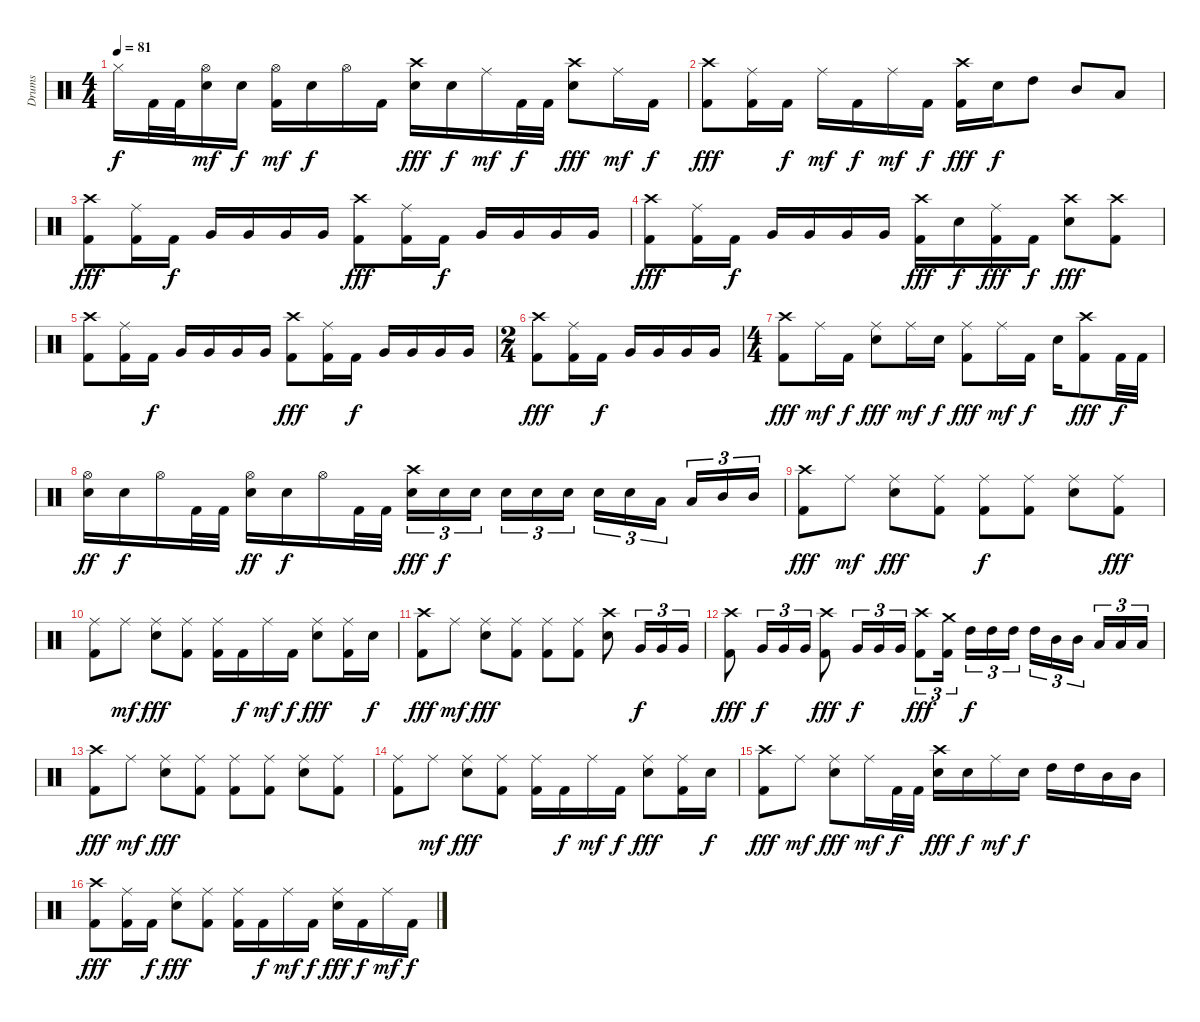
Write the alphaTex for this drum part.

\track ("Drums" "Drums") {instrument percussion}
\staff {score}
\articulation defaults
\ts (4 4)
\tempo 81
\clef neutral
\ks c "Hi-Hat (closed)".16{dy f} "Kick (hit) 2".32 "Kick (hit) 2".32
("Hi-Hat (open)" "Electric Snare (hit)").16{dy mf} "Electric Snare (hit)".16{dy f} ("Hi-Hat (open)" "Kick (hit) 2").16{dy mf} "Electric Snare (hit)".16{dy f} "Hi-Hat (open)".16 "Kick (hit) 2".16 ("Crash high (hit)" "Electric Snare (hit)").16{dy fff} "Electric Snare (hit)".16{dy f} "Ride (middle)".16{dy mf} "Kick (hit) 2".32{dy f} "Kick (hit) 2".32 ("Crash high (hit)" "Electric Snare (hit)").8{dy fff} "Ride (middle)".16{dy mf} "Kick (hit) 2".16{dy f} |
("Crash high (hit)" "Kick (hit) 2").8{dy fff} ("Ride (middle)" "Kick (hit) 2").16 "Kick (hit) 2".16{dy f} "Ride (middle)".16{dy mf} "Kick (hit) 2".16{dy f} "Ride (middle)".16{dy mf} "Kick (hit) 2".16{dy f} ("Crash high (hit)" "Kick (hit) 2").16{dy fff} "Electric Snare (hit)".16{dy f} "High Tom (hit)".8 "Mid Tom (hit)".8 "Low Tom (hit)".8 |
("Crash high (hit)" "Kick (hit) 2").8{dy fff} ("Ride (middle)" "Kick (hit) 2").16 "Kick (hit) 2".16{dy f} "Very Low Tom (hit)".16 "Very Low Tom (hit)".16 "Very Low Tom (hit)".16 "Very Low Tom (hit)".16 ("Crash high (hit)" "Kick (hit) 2").8{dy fff} ("Ride (middle)" "Kick (hit) 2").16 "Kick (hit) 2".16{dy f} "Very Low Tom (hit)".16 "Very Low Tom (hit)".16 "Very Low Tom (hit)".16 "Very Low Tom (hit)".16 |
("Crash high (hit)" "Kick (hit) 2").8{dy fff} ("Ride (middle)" "Kick (hit) 2").16 "Kick (hit) 2".16{dy f} "Very Low Tom (hit)".16 "Very Low Tom (hit)".16 "Very Low Tom (hit)".16 "Very Low Tom (hit)".16 ("Crash high (hit)" "Kick (hit) 2").16{dy fff} "Electric Snare (hit)".16{dy f} ("Ride (middle)" "Kick (hit) 2").16{dy fff} "Kick (hit) 2".16{dy f} ("Crash high (hit)" "Electric Snare (hit)").8{dy fff} ("Crash high (hit)" "Kick (hit) 2").8 |
("Crash high (hit)" "Kick (hit) 2").8 ("Ride (middle)" "Kick (hit) 2").16 "Kick (hit) 2".16{dy f} "Very Low Tom (hit)".16 "Very Low Tom (hit)".16 "Very Low Tom (hit)".16 "Very Low Tom (hit)".16 ("Crash high (hit)" "Kick (hit) 2").8{dy fff} ("Ride (middle)" "Kick (hit) 2").16 "Kick (hit) 2".16{dy f} "Very Low Tom (hit)".16 "Very Low Tom (hit)".16 "Very Low Tom (hit)".16 "Very Low Tom (hit)".16 |
\ts (2 4)
("Crash high (hit)" "Kick (hit) 2").8{dy fff} ("Ride (middle)" "Kick (hit) 2").16 "Kick (hit) 2".16{dy f} "Very Low Tom (hit)".16 "Very Low Tom (hit)".16 "Very Low Tom (hit)".16 "Very Low Tom (hit)".16 |
\ts (4 4)
("Crash high (hit)" "Kick (hit) 2").8{dy fff} "Ride (middle)".16{dy mf} "Kick (hit) 2".16{dy f} ("Ride (middle)" "Electric Snare (hit)").8{dy fff} "Ride (middle)".16{dy mf} "Electric Snare (hit)".16{dy f} ("Ride (middle)" "Kick (hit) 2").8{dy fff} "Ride (middle)".16{dy mf} "Kick (hit) 2".16{dy f} "Electric Snare (hit)".16 ("Crash high (hit)" "Kick (hit) 2").8{dy fff} "Kick (hit) 2".32{dy f} "Kick (hit) 2".32 |
("Hi-Hat (open)" "Electric Snare (hit)").16{dy ff} "Electric Snare (hit)".16{dy f} "Hi-Hat (open)".16 "Kick (hit) 2".32 "Kick (hit) 2".32 ("Hi-Hat (open)" "Electric Snare (hit)").16{dy ff} "Electric Snare (hit)".16{dy f} "Hi-Hat (open)".16 "Kick (hit) 2".32 "Kick (hit) 2".32 ("Crash high (hit)" "Electric Snare (hit)").16{tu (3 2) dy fff} "Electric Snare (hit)".16{tu (3 2) dy f} "Electric Snare (hit)".16{tu (3 2)} "Electric Snare (hit)".16{tu (3 2)} "Electric Snare (hit)".16{tu (3 2)} "Electric Snare (hit)".16{tu (3 2)} "Electric Snare (hit)".16{tu (3 2)} "Electric Snare (hit)".16{tu (3 2)} "Low Tom (hit)".16{tu (3 2)} "Low Tom (hit)".16{tu (3 2)} "Mid Tom (hit)".16{tu (3 2)} "Mid Tom (hit)".16{tu (3 2)} |
("Crash high (hit)" "Kick (hit) 2").8{dy fff} "Ride (middle)".8{dy mf} ("Ride (middle)" "Electric Snare (hit)").8{dy fff} ("Ride (middle)" "Kick (hit) 2").8 ("Ride (middle)" "Kick (hit) 2").8{dy f} ("Ride (middle)" "Kick (hit) 2").8 ("Ride (middle)" "Electric Snare (hit)").8 ("Ride (middle)" "Kick (hit) 2").8{dy fff} |
("Ride (middle)" "Kick (hit) 2").8 "Ride (middle)".8{dy mf} ("Ride (middle)" "Electric Snare (hit)").8{dy fff} ("Ride (middle)" "Kick (hit) 2").8 ("Ride (middle)" "Kick (hit) 2").16 "Kick (hit) 2".16{dy f} "Ride (middle)".16{dy mf} "Kick (hit) 2".16{dy f} ("Ride (middle)" "Electric Snare (hit)").8{dy fff} ("Ride (middle)" "Kick (hit) 2").16 "Electric Snare (hit)".16{dy f} |
("Crash high (hit)" "Kick (hit) 2").8{dy fff} "Ride (middle)".8{dy mf} ("Ride (middle)" "Electric Snare (hit)").8{dy fff} ("Ride (middle)" "Kick (hit) 2").8 ("Ride (middle)" "Kick (hit) 2").8 ("Ride (middle)" "Kick (hit) 2").8 ("Crash high (hit)" "Electric Snare (hit)").8 "Very Low Tom (hit)".16{tu (3 2) dy f} "Very Low Tom (hit)".16{tu (3 2)} "Very Low Tom (hit)".16{tu (3 2)} |
("Crash high (hit)" "Kick (hit) 2").8{dy fff} "Very Low Tom (hit)".16{tu (3 2) dy f} "Very Low Tom (hit)".16{tu (3 2)} "Very Low Tom (hit)".16{tu (3 2)} ("Crash high (hit)" "Kick (hit) 2").8{dy fff} "Very Low Tom (hit)".16{tu (3 2) dy f} "Very Low Tom (hit)".16{tu (3 2)} "Very Low Tom (hit)".16{tu (3 2)} ("Crash high (hit)" "Kick (hit) 2").8{tu (3 2) dy fff} ("Crash medium (hit)" "Kick (hit) 2").16{tu (3 2)} "High Tom (hit)".16{tu (3 2) dy f} "High Tom (hit)".16{tu (3 2)} "High Tom (hit)".16{tu (3 2)} "High Tom (hit)".16{tu (3 2)} "Mid Tom (hit)".16{tu (3 2)} "Mid Tom (hit)".16{tu (3 2)} "Low Tom (hit)".16{tu (3 2)} "Low Tom (hit)".16{tu (3 2)} "Low Tom (hit)".16{tu (3 2)} |
("Crash high (hit)" "Kick (hit) 2").8{dy fff} "Ride (middle)".8{dy mf} ("Ride (middle)" "Electric Snare (hit)").8{dy fff} ("Ride (middle)" "Kick (hit) 2").8 ("Ride (middle)" "Kick (hit) 2").8 ("Ride (middle)" "Kick (hit) 2").8 ("Ride (middle)" "Electric Snare (hit)").8 ("Ride (middle)" "Kick (hit) 2").8 |
("Ride (middle)" "Kick (hit) 2").8 "Ride (middle)".8{dy mf} ("Ride (middle)" "Electric Snare (hit)").8{dy fff} ("Ride (middle)" "Kick (hit) 2").8 ("Ride (middle)" "Kick (hit) 2").16 "Kick (hit) 2".16{dy f} "Ride (middle)".16{dy mf} "Kick (hit) 2".16{dy f} ("Ride (middle)" "Electric Snare (hit)").8{dy fff} ("Ride (middle)" "Kick (hit) 2").16 "Electric Snare (hit)".16{dy f} |
("Crash high (hit)" "Kick (hit) 2").8{dy fff} "Ride (middle)".8{dy mf} ("Ride (middle)" "Electric Snare (hit)").8{dy fff} "Ride (middle)".16{dy mf} "Kick (hit) 2".32{dy f} "Kick (hit) 2".32 ("Crash high (hit)" "Electric Snare (hit)").16{dy fff} "Electric Snare (hit)".16{dy f} "Ride (middle)".16{dy mf} "Electric Snare (hit)".16{dy f} "High Tom (hit)".16 "High Tom (hit)".16 "Mid Tom (hit)".16 "Mid Tom (hit)".16 |
("Crash high (hit)" "Kick (hit) 2").8{dy fff} ("Ride (middle)" "Kick (hit) 2").16 "Kick (hit) 2".16{dy f} ("Ride (middle)" "Electric Snare (hit)").8{dy fff} ("Ride (middle)" "Kick (hit) 2").8 ("Ride (middle)" "Kick (hit) 2").16 "Kick (hit) 2".16{dy f} "Ride (middle)".16{dy mf} "Kick (hit) 2".16{dy f} ("Ride (middle)" "Electric Snare (hit)").16{dy fff} "Kick (hit) 2".16{dy f} "Ride (middle)".16{dy mf} "Kick (hit) 2".16{dy f}
